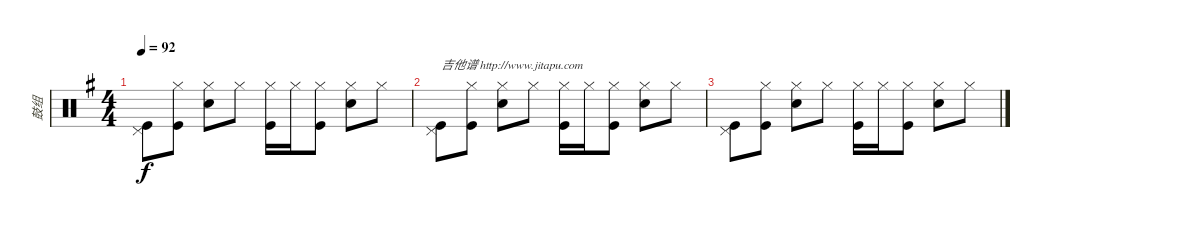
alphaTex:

\track ("鼓组" "鼓组") {instrument percussion}
\staff {score}
\articulation defaults
\ts (4 4)
\tempo 92
\clef neutral
\ks g
("Pedal Hi-Hat (hit)" "Kick (hit)").8{dy f} ("Hi-Hat (closed)" "Kick (hit)").8 ("Hi-Hat (closed)" "Snare (hit) 2").8 "Hi-Hat (closed)".8 ("Hi-Hat (closed)" "Kick (hit)").16 "Hi-Hat (closed)".16 ("Hi-Hat (closed)" "Kick (hit)").8 ("Hi-Hat (closed)" "Snare (hit) 2").8 "Hi-Hat (closed)".8 |
("Pedal Hi-Hat (hit)" "Kick (hit)").8{txt "吉他谱 http://www.jitapu.com"} ("Hi-Hat (closed)" "Kick (hit)").8 ("Hi-Hat (closed)" "Snare (hit) 2").8 "Hi-Hat (closed)".8 ("Hi-Hat (closed)" "Kick (hit)").16 "Hi-Hat (closed)".16 ("Hi-Hat (closed)" "Kick (hit)").8 ("Hi-Hat (closed)" "Snare (hit) 2").8 "Hi-Hat (closed)".8 |
("Pedal Hi-Hat (hit)" "Kick (hit)").8 ("Hi-Hat (closed)" "Kick (hit)").8 ("Hi-Hat (closed)" "Snare (hit) 2").8 "Hi-Hat (closed)".8 ("Hi-Hat (closed)" "Kick (hit)").16 "Hi-Hat (closed)".16 ("Hi-Hat (closed)" "Kick (hit)").8 ("Hi-Hat (closed)" "Snare (hit) 2").8 "Hi-Hat (closed)".8
